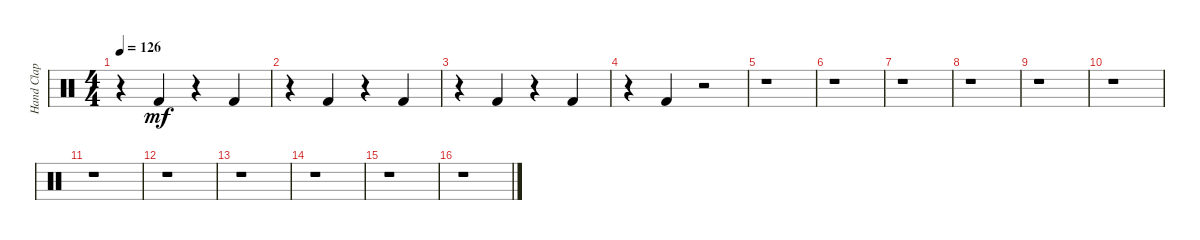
\track ("Hand Clap" "Hand Clap") {instrument percussion}
\staff {score}
\articulation defaults
\ts (4 4)
\tempo 126
\clef neutral
\ks c
r.4{dy mf} "Kick (hit) 2".4 r.4 "Kick (hit) 2".4 |
r.4 "Kick (hit) 2".4 r.4 "Kick (hit) 2".4 |
r.4 "Kick (hit) 2".4 r.4 "Kick (hit) 2".4 |
r.4 "Kick (hit) 2".4 r.2 |
r.1 |
r.1 |
r.1 |
r.1 |
r.1 |
r.1 |
r.1 |
r.1 |
r.1 |
r.1 |
r.1 |
r.1
